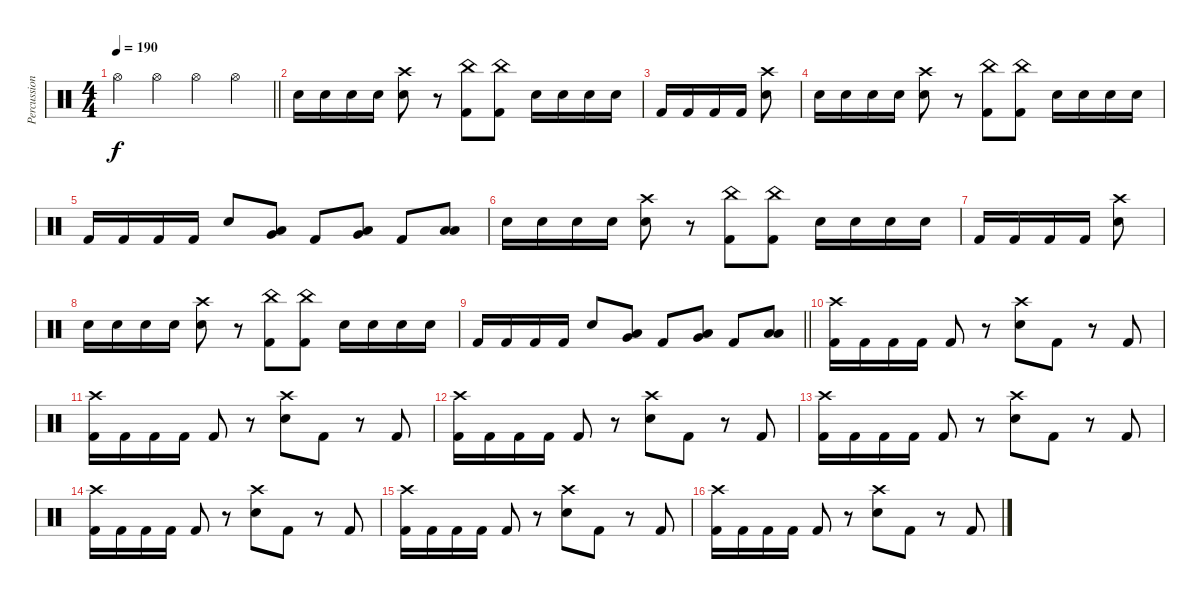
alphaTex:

\track ("Percussions" "Percussion") {instrument percussion}
\staff {score}
\articulation defaults
\ts (4 4)
\tempo 190
\clef neutral
\barLineRight lightlight
\ks c "Hi-Hat (open)".4{dy f} "Hi-Hat (open)".4 "Hi-Hat (open)".4 "Hi-Hat (open)".4
|
"Electric Snare (hit)".16 "Electric Snare (hit)".16 "Electric Snare (hit)".16 "Electric Snare (hit)".16 ("Crash high (hit)" "Electric Snare (hit)").8 r.8 ("China (hit)" "Kick (hit) 2").8 ("China (hit)" "Kick (hit) 2").8 "Electric Snare (hit)".16 "Electric Snare (hit)".16 "Electric Snare (hit)".16 "Electric Snare (hit)".16 |
"Kick (hit) 2".16 "Kick (hit) 2".16 "Kick (hit) 2".16 "Kick (hit) 2".16 ("Crash high (hit)" "Electric Snare (hit)").8 |
"Electric Snare (hit)".16 "Electric Snare (hit)".16 "Electric Snare (hit)".16 "Electric Snare (hit)".16 ("Crash high (hit)" "Electric Snare (hit)").8 r.8 ("China (hit)" "Kick (hit) 2").8 ("China (hit)" "Kick (hit) 2").8 "Electric Snare (hit)".16 "Electric Snare (hit)".16 "Electric Snare (hit)".16 "Electric Snare (hit)".16 |
"Kick (hit) 2".16 "Kick (hit) 2".16 "Kick (hit) 2".16 "Kick (hit) 2".16 "Electric Snare (hit)".8 ("Low Floor Tom (hit)" "Very Low Tom (hit)").8 "Kick (hit) 2".8 ("Low Tom (hit)" "Very Low Tom (hit)").8 "Kick (hit) 2".8 ("Low Tom (hit)" "Low Floor Tom (hit)").8 |
"Electric Snare (hit)".16 "Electric Snare (hit)".16 "Electric Snare (hit)".16 "Electric Snare (hit)".16 ("Crash high (hit)" "Electric Snare (hit)").8 r.8 ("China (hit)" "Kick (hit) 2").8 ("China (hit)" "Kick (hit) 2").8 "Electric Snare (hit)".16 "Electric Snare (hit)".16 "Electric Snare (hit)".16 "Electric Snare (hit)".16 |
"Kick (hit) 2".16 "Kick (hit) 2".16 "Kick (hit) 2".16 "Kick (hit) 2".16 ("Crash high (hit)" "Electric Snare (hit)").8 |
"Electric Snare (hit)".16 "Electric Snare (hit)".16 "Electric Snare (hit)".16 "Electric Snare (hit)".16 ("Crash high (hit)" "Electric Snare (hit)").8 r.8 ("China (hit)" "Kick (hit) 2").8 ("China (hit)" "Kick (hit) 2").8 "Electric Snare (hit)".16 "Electric Snare (hit)".16 "Electric Snare (hit)".16 "Electric Snare (hit)".16 |
\barLineRight lightlight "Kick (hit) 2".16 "Kick (hit) 2".16 "Kick (hit) 2".16 "Kick (hit) 2".16 "Electric Snare (hit)".8
("Low Floor Tom (hit)" "Very Low Tom (hit)").8 "Kick (hit) 2".8 ("Low Tom (hit)" "Very Low Tom (hit)").8 "Kick (hit) 2".8 ("Low Tom (hit)" "Low Floor Tom (hit)").8 |
("Crash high (hit)" "Kick (hit) 2").16 "Kick (hit) 2".16 "Kick (hit) 2".16 "Kick (hit) 2".16 "Kick (hit) 2".8 r.8 ("Crash high (hit)" "Electric Snare (hit)").8 "Kick (hit) 2".8 r.8 "Kick (hit) 2".8 |
("Crash high (hit)" "Kick (hit) 2").16 "Kick (hit) 2".16 "Kick (hit) 2".16 "Kick (hit) 2".16 "Kick (hit) 2".8 r.8 ("Crash high (hit)" "Electric Snare (hit)").8 "Kick (hit) 2".8 r.8 "Kick (hit) 2".8 |
("Crash high (hit)" "Kick (hit) 2").16 "Kick (hit) 2".16 "Kick (hit) 2".16 "Kick (hit) 2".16 "Kick (hit) 2".8 r.8 ("Crash high (hit)" "Electric Snare (hit)").8 "Kick (hit) 2".8 r.8 "Kick (hit) 2".8 |
("Crash high (hit)" "Kick (hit) 2").16 "Kick (hit) 2".16 "Kick (hit) 2".16 "Kick (hit) 2".16 "Kick (hit) 2".8 r.8 ("Crash high (hit)" "Electric Snare (hit)").8 "Kick (hit) 2".8 r.8 "Kick (hit) 2".8 |
("Crash high (hit)" "Kick (hit) 2").16 "Kick (hit) 2".16 "Kick (hit) 2".16 "Kick (hit) 2".16 "Kick (hit) 2".8 r.8 ("Crash high (hit)" "Electric Snare (hit)").8 "Kick (hit) 2".8 r.8 "Kick (hit) 2".8 |
("Crash high (hit)" "Kick (hit) 2").16 "Kick (hit) 2".16 "Kick (hit) 2".16 "Kick (hit) 2".16 "Kick (hit) 2".8 r.8 ("Crash high (hit)" "Electric Snare (hit)").8 "Kick (hit) 2".8 r.8 "Kick (hit) 2".8 |
("Crash high (hit)" "Kick (hit) 2").16 "Kick (hit) 2".16 "Kick (hit) 2".16 "Kick (hit) 2".16 "Kick (hit) 2".8 r.8 ("Crash high (hit)" "Electric Snare (hit)").8 "Kick (hit) 2".8 r.8 "Kick (hit) 2".8
